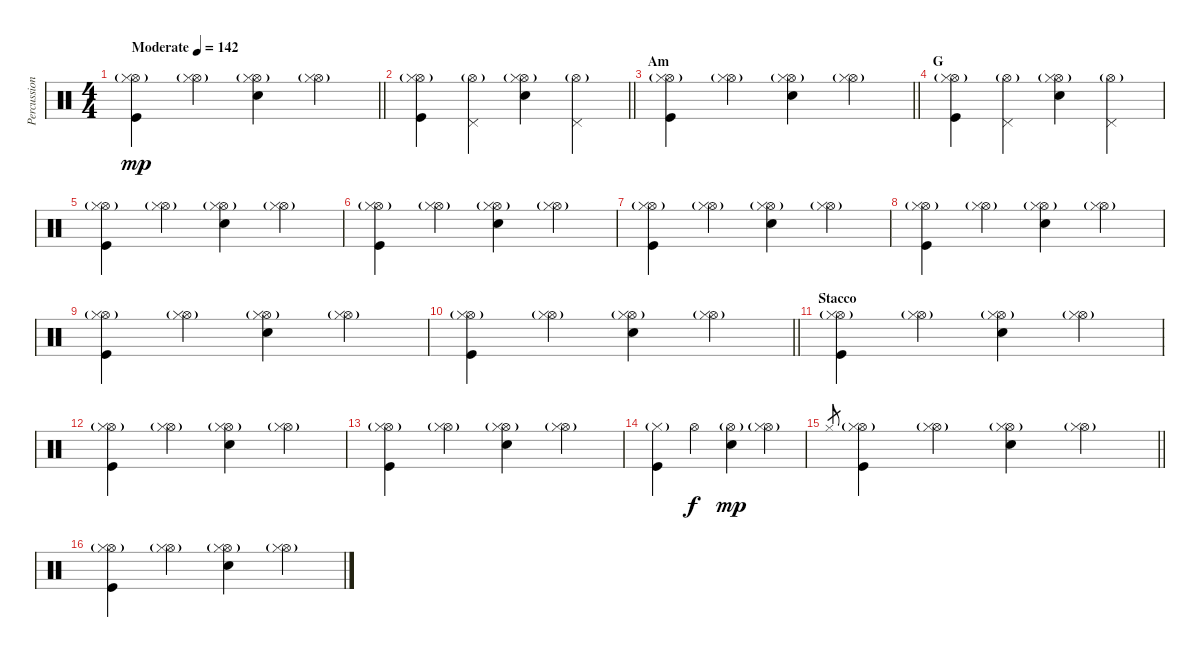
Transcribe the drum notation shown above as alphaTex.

\track ("Percussioni" "Percussion") {instrument percussion}
\staff {score}
\articulation defaults
\ts (4 4)
\tempo (142 "Moderate")
\clef neutral
\barLineRight lightlight
\ks c
("Hi-Hat (open)"{g} "Hi-Hat (closed)"{g} "Kick (hit)").4{dy mp} ("Hi-Hat (open)"{g} "Hi-Hat (closed)").4 ("Hi-Hat (open)"{g} "Hi-Hat (closed)"{g} "Electric Snare (hit)").4 ("Hi-Hat (open)"{g} "Hi-Hat (closed)").4 |
\barLineRight lightlight
("Hi-Hat (open)"{g} "Hi-Hat (closed)"{g} "Kick (hit)").4 ("Hi-Hat (open)"{g} "Pedal Hi-Hat (hit)").4 ("Hi-Hat (open)"{g} "Hi-Hat (closed)"{g} "Electric Snare (hit)").4 ("Hi-Hat (open)"{g} "Pedal Hi-Hat (hit)").4 |
\section ("" "Am")
\barLineRight lightlight
("Hi-Hat (open)"{g} "Hi-Hat (closed)"{g} "Kick (hit)").4 ("Hi-Hat (open)"{g} "Hi-Hat (closed)").4 ("Hi-Hat (open)"{g} "Hi-Hat (closed)"{g} "Electric Snare (hit)").4 ("Hi-Hat (open)"{g} "Hi-Hat (closed)").4 |
\section ("" "G")
("Hi-Hat (open)"{g} "Hi-Hat (closed)"{g} "Kick (hit)").4 ("Hi-Hat (open)"{g} "Pedal Hi-Hat (hit)").4 ("Hi-Hat (open)"{g} "Hi-Hat (closed)"{g} "Electric Snare (hit)").4 ("Hi-Hat (open)"{g} "Pedal Hi-Hat (hit)").4 |
("Hi-Hat (open)"{g} "Hi-Hat (closed)"{g} "Kick (hit)").4 ("Hi-Hat (open)"{g} "Hi-Hat (closed)").4 ("Hi-Hat (open)"{g} "Hi-Hat (closed)"{g} "Electric Snare (hit)").4 ("Hi-Hat (open)"{g} "Hi-Hat (closed)").4 |
("Hi-Hat (open)"{g} "Hi-Hat (closed)"{g} "Kick (hit)").4 ("Hi-Hat (open)"{g} "Hi-Hat (closed)").4 ("Hi-Hat (open)"{g} "Hi-Hat (closed)"{g} "Electric Snare (hit)").4 ("Hi-Hat (open)"{g} "Hi-Hat (closed)").4 |
("Hi-Hat (open)"{g} "Hi-Hat (closed)"{g} "Kick (hit)").4 ("Hi-Hat (open)"{g} "Hi-Hat (closed)").4 ("Hi-Hat (open)"{g} "Hi-Hat (closed)"{g} "Electric Snare (hit)").4 ("Hi-Hat (open)"{g} "Hi-Hat (closed)").4 |
("Hi-Hat (open)"{g} "Hi-Hat (closed)"{g} "Kick (hit)").4 ("Hi-Hat (open)"{g} "Hi-Hat (closed)").4 ("Hi-Hat (open)"{g} "Hi-Hat (closed)"{g} "Electric Snare (hit)").4 ("Hi-Hat (open)"{g} "Hi-Hat (closed)").4 |
("Hi-Hat (open)"{g} "Hi-Hat (closed)"{g} "Kick (hit)").4 ("Hi-Hat (open)"{g} "Hi-Hat (closed)").4 ("Hi-Hat (open)"{g} "Hi-Hat (closed)"{g} "Electric Snare (hit)").4 ("Hi-Hat (open)"{g} "Hi-Hat (closed)").4 |
\barLineRight lightlight
("Hi-Hat (open)"{g} "Hi-Hat (closed)"{g} "Kick (hit)").4 ("Hi-Hat (open)"{g} "Hi-Hat (closed)").4 ("Hi-Hat (open)"{g} "Hi-Hat (closed)"{g} "Electric Snare (hit)").4 ("Hi-Hat (open)"{g} "Hi-Hat (closed)").4 |
\section ("" "Stacco")
("Hi-Hat (open)"{g} "Hi-Hat (closed)"{g} "Kick (hit)").4 ("Hi-Hat (open)"{g} "Hi-Hat (closed)").4 ("Hi-Hat (open)"{g} "Hi-Hat (closed)"{g} "Electric Snare (hit)").4 ("Hi-Hat (open)"{g} "Hi-Hat (closed)").4 |
("Hi-Hat (open)"{g} "Hi-Hat (closed)"{g} "Kick (hit)").4 ("Hi-Hat (open)"{g} "Hi-Hat (closed)").4 ("Hi-Hat (open)"{g} "Hi-Hat (closed)"{g} "Electric Snare (hit)").4 ("Hi-Hat (open)"{g} "Hi-Hat (closed)").4 |
("Hi-Hat (open)"{g} "Hi-Hat (closed)"{g} "Kick (hit)").4 ("Hi-Hat (open)"{g} "Hi-Hat (closed)").4 ("Hi-Hat (open)"{g} "Hi-Hat (closed)"{g} "Electric Snare (hit)").4 ("Hi-Hat (open)"{g} "Hi-Hat (closed)").4 |
("Hi-Hat (closed)"{g} "Kick (hit)").4 "Hi-Hat (open)".4{dy f} ("Hi-Hat (open)"{g} "Electric Snare (hit)").4{dy mp} ("Hi-Hat (open)"{g} "Hi-Hat (closed)").4 |
\barLineRight lightlight "Hi-Hat (closed)".8{gr}
("Hi-Hat (open)"{g} "Hi-Hat (closed)"{g} "Kick (hit)").4 ("Hi-Hat (open)"{g} "Hi-Hat (closed)").4 ("Hi-Hat (open)"{g} "Hi-Hat (closed)"{g} "Electric Snare (hit)").4 ("Hi-Hat (open)"{g} "Hi-Hat (closed)").4 |
("Hi-Hat (open)"{g} "Hi-Hat (closed)"{g} "Kick (hit)").4 ("Hi-Hat (open)"{g} "Hi-Hat (closed)").4 ("Hi-Hat (open)"{g} "Hi-Hat (closed)"{g} "Electric Snare (hit)").4 ("Hi-Hat (open)"{g} "Hi-Hat (closed)").4
